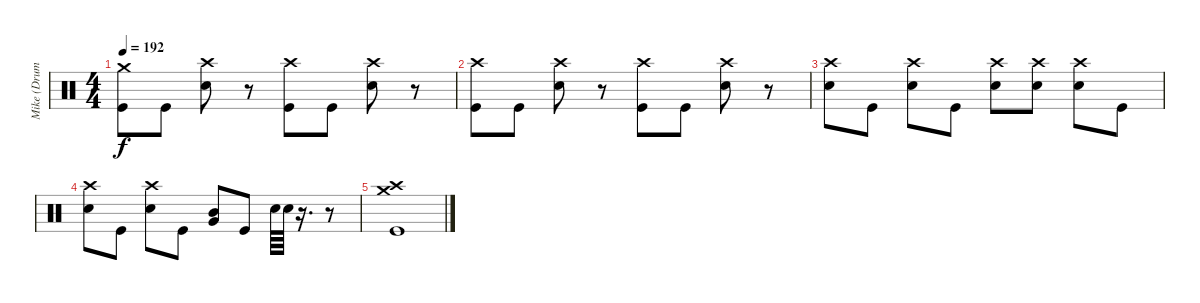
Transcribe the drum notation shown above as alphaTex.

\track ("Mike (Drums)" "Mike (Drum") {instrument percussion}
\staff {score}
\articulation defaults
\ts (4 4)
\tempo 192
\clef neutral
\ks c
("Crash medium (hit)" "Kick (hit)").8{dy f} "Kick (hit)".8 ("Crash high (hit)" "Snare (hit) 2").8 r.8 ("Crash high (hit)" "Kick (hit)").8 "Kick (hit)".8 ("Crash high (hit)" "Snare (hit) 2").8 r.8 |
("Crash high (hit)" "Kick (hit)").8 "Kick (hit)".8 ("Crash high (hit)" "Snare (hit) 2").8 r.8 ("Crash high (hit)" "Kick (hit)").8 "Kick (hit)".8 ("Crash high (hit)" "Snare (hit) 2").8 r.8 |
("Crash high (hit)" "Snare (hit) 2").8 "Kick (hit)".8 ("Crash high (hit)" "Snare (hit) 2").8 "Kick (hit)".8 ("Crash high (hit)" "Snare (hit) 2").8 ("Crash high (hit)" "Snare (hit) 2").8 ("Crash high (hit)" "Snare (hit) 2").8 "Kick (hit)".8 |
("Crash high (hit)" "Snare (hit) 2").8 "Kick (hit)".8 ("Crash high (hit)" "Snare (hit) 2").8 "Kick (hit)".8 ("Mid Tom (hit)" "Very Low Tom (hit)").8 "Kick (hit)".8 "Snare (hit) 2".64 "Snare (hit) 2".64 r.16{d} r.8 |
("Crash high (hit)" "Crash medium (hit)" "Kick (hit)").1
